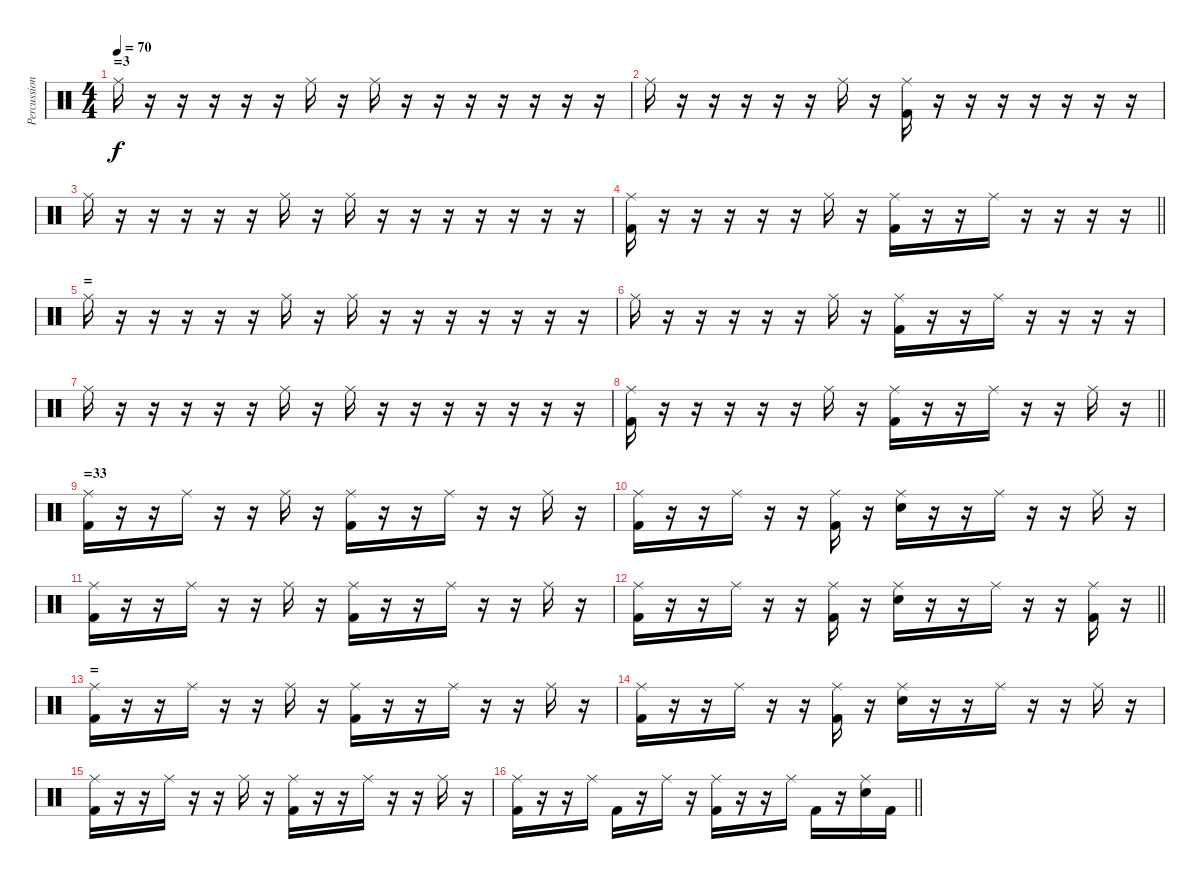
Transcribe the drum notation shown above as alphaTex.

\track ("Percussion" "Percussion") {instrument percussion}
\staff {score}
\articulation defaults
\ts (4 4)
\section ("" "=3")
\tempo 70
\clef neutral
\ks c "Ride (middle)".16{dy f}
r.16 r.16 r.16 r.16 r.16 "Ride (middle)".16 r.16 "Ride (middle)".16 r.16 r.16 r.16 r.16 r.16 r.16 r.16 |
"Ride (middle)".16 r.16 r.16 r.16 r.16 r.16 "Ride (middle)".16 r.16 ("Kick (hit) 2" "Ride (middle)").16 r.16 r.16 r.16 r.16 r.16 r.16 r.16 |
"Ride (middle)".16 r.16 r.16 r.16 r.16 r.16 "Ride (middle)".16 r.16 "Ride (middle)".16 r.16 r.16 r.16 r.16 r.16 r.16 r.16 |
\barLineRight lightlight
("Kick (hit) 2" "Ride (middle)").16 r.16 r.16 r.16 r.16 r.16 "Ride (middle)".16 r.16 ("Kick (hit) 2" "Ride (middle)").16 r.16 r.16 "Ride (middle)".16 r.16 r.16 r.16 r.16 |
\section ("" "=")
"Ride (middle)".16 r.16 r.16 r.16 r.16 r.16 "Ride (middle)".16 r.16 "Ride (middle)".16 r.16 r.16 r.16 r.16 r.16 r.16 r.16 |
"Ride (middle)".16 r.16 r.16 r.16 r.16 r.16 "Ride (middle)".16 r.16 ("Kick (hit) 2" "Ride (middle)").16 r.16 r.16 "Ride (middle)".16 r.16 r.16 r.16 r.16 |
"Ride (middle)".16 r.16 r.16 r.16 r.16 r.16 "Ride (middle)".16 r.16 "Ride (middle)".16 r.16 r.16 r.16 r.16 r.16 r.16 r.16 |
\barLineRight lightlight
("Kick (hit) 2" "Ride (middle)").16 r.16 r.16 r.16 r.16 r.16 "Ride (middle)".16 r.16 ("Kick (hit) 2" "Ride (middle)").16 r.16 r.16 "Ride (middle)".16 r.16 r.16 "Ride (middle)".16 r.16 |
\section ("" "=33")
("Kick (hit) 2" "Ride (middle)").16 r.16 r.16 "Ride (middle)".16 r.16 r.16 "Ride (middle)".16 r.16 ("Kick (hit) 2" "Ride (middle)").16 r.16 r.16 "Ride (middle)".16 r.16 r.16 "Ride (middle)".16 r.16 |
("Kick (hit) 2" "Ride (middle)").16 r.16 r.16 "Ride (middle)".16 r.16 r.16 ("Kick (hit) 2" "Ride (middle)").16 r.16 ("Electric Snare (hit)" "Ride (middle)").16 r.16 r.16 "Ride (middle)".16 r.16 r.16 "Ride (middle)".16 r.16 |
("Kick (hit) 2" "Ride (middle)").16 r.16 r.16 "Ride (middle)".16 r.16 r.16 "Ride (middle)".16 r.16 ("Kick (hit) 2" "Ride (middle)").16 r.16 r.16 "Ride (middle)".16 r.16 r.16 "Ride (middle)".16 r.16 |
\barLineRight lightlight
("Kick (hit) 2" "Ride (middle)").16 r.16 r.16 "Ride (middle)".16 r.16 r.16 ("Kick (hit) 2" "Ride (middle)").16 r.16 ("Electric Snare (hit)" "Ride (middle)").16 r.16 r.16 "Ride (middle)".16 r.16 r.16 ("Kick (hit) 2" "Ride (middle)").16 r.16 |
\section ("" "=")
("Kick (hit) 2" "Ride (middle)").16 r.16 r.16 "Ride (middle)".16 r.16 r.16 "Ride (middle)".16 r.16 ("Kick (hit) 2" "Ride (middle)").16 r.16 r.16 "Ride (middle)".16 r.16 r.16 "Ride (middle)".16 r.16 |
("Kick (hit) 2" "Ride (middle)").16 r.16 r.16 "Ride (middle)".16 r.16 r.16 ("Kick (hit) 2" "Ride (middle)").16 r.16 ("Electric Snare (hit)" "Ride (middle)").16 r.16 r.16 "Ride (middle)".16 r.16 r.16 "Ride (middle)".16 r.16 |
("Kick (hit) 2" "Ride (middle)").16 r.16 r.16 "Ride (middle)".16 r.16 r.16 "Ride (middle)".16 r.16 ("Kick (hit) 2" "Ride (middle)").16 r.16 r.16 "Ride (middle)".16 r.16 r.16 "Ride (middle)".16 r.16 |
\barLineRight lightlight
("Kick (hit) 2" "Ride (middle)").16 r.16 r.16 "Ride (middle)".16 "Kick (hit) 2".16 r.16 "Ride (middle)".16 r.16 ("Kick (hit) 2" "Ride (middle)").16 r.16 r.16 "Ride (middle)".16 "Kick (hit) 2".16 r.16 ("Electric Snare (hit)" "Ride (middle)").16 "Kick (hit) 2".16
